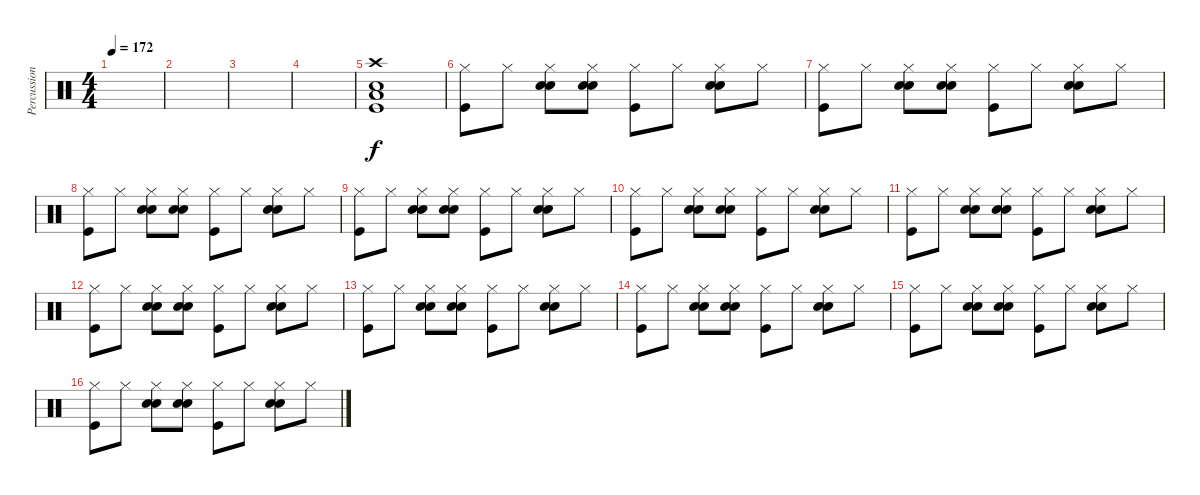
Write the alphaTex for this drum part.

\track ("Percussions" "Percussion") {instrument percussion}
\staff {score}
\articulation defaults
\ts (4 4)
\tempo 172
\clef neutral
\ks c
|
|
|
|
("Crash high (hit)" "Snare (hit) 2" "Low Tom (hit)" "Kick (hit)").1 |
("Hi-Hat (closed)" "Kick (hit)").8 "Hi-Hat (closed)".8 ("Electric Snare (hit)" "Hi-Hat (closed)" "Snare (hit) 2").8 ("Electric Snare (hit)" "Hi-Hat (closed)" "Snare (hit) 2").8 ("Hi-Hat (closed)" "Kick (hit)").8 "Hi-Hat (closed)".8 ("Electric Snare (hit)" "Hi-Hat (closed)" "Snare (hit) 2").8 "Hi-Hat (closed)".8 |
("Hi-Hat (closed)" "Kick (hit)").8 "Hi-Hat (closed)".8 ("Electric Snare (hit)" "Hi-Hat (closed)" "Snare (hit) 2").8 ("Electric Snare (hit)" "Hi-Hat (closed)" "Snare (hit) 2").8 ("Hi-Hat (closed)" "Kick (hit)").8 "Hi-Hat (closed)".8 ("Electric Snare (hit)" "Hi-Hat (closed)" "Snare (hit) 2").8 "Hi-Hat (closed)".8 |
("Hi-Hat (closed)" "Kick (hit)").8 "Hi-Hat (closed)".8 ("Electric Snare (hit)" "Hi-Hat (closed)" "Snare (hit) 2").8 ("Electric Snare (hit)" "Hi-Hat (closed)" "Snare (hit) 2").8 ("Hi-Hat (closed)" "Kick (hit)").8 "Hi-Hat (closed)".8 ("Electric Snare (hit)" "Hi-Hat (closed)" "Snare (hit) 2").8 "Hi-Hat (closed)".8 |
("Hi-Hat (closed)" "Kick (hit)").8 "Hi-Hat (closed)".8 ("Electric Snare (hit)" "Hi-Hat (closed)" "Snare (hit) 2").8 ("Electric Snare (hit)" "Hi-Hat (closed)" "Snare (hit) 2").8 ("Hi-Hat (closed)" "Kick (hit)").8 "Hi-Hat (closed)".8 ("Electric Snare (hit)" "Hi-Hat (closed)" "Snare (hit) 2").8 "Hi-Hat (closed)".8 |
("Hi-Hat (closed)" "Kick (hit)").8 "Hi-Hat (closed)".8 ("Electric Snare (hit)" "Hi-Hat (closed)" "Snare (hit) 2").8 ("Electric Snare (hit)" "Hi-Hat (closed)" "Snare (hit) 2").8 ("Hi-Hat (closed)" "Kick (hit)").8 "Hi-Hat (closed)".8 ("Electric Snare (hit)" "Hi-Hat (closed)" "Snare (hit) 2").8 "Hi-Hat (closed)".8 |
("Hi-Hat (closed)" "Kick (hit)").8 "Hi-Hat (closed)".8 ("Electric Snare (hit)" "Hi-Hat (closed)" "Snare (hit) 2").8 ("Electric Snare (hit)" "Hi-Hat (closed)" "Snare (hit) 2").8 ("Hi-Hat (closed)" "Kick (hit)").8 "Hi-Hat (closed)".8 ("Electric Snare (hit)" "Hi-Hat (closed)" "Snare (hit) 2").8 "Hi-Hat (closed)".8 |
("Hi-Hat (closed)" "Kick (hit)").8 "Hi-Hat (closed)".8 ("Electric Snare (hit)" "Hi-Hat (closed)" "Snare (hit) 2").8 ("Electric Snare (hit)" "Hi-Hat (closed)" "Snare (hit) 2").8 ("Hi-Hat (closed)" "Kick (hit)").8 "Hi-Hat (closed)".8 ("Electric Snare (hit)" "Hi-Hat (closed)" "Snare (hit) 2").8 "Hi-Hat (closed)".8 |
("Hi-Hat (closed)" "Kick (hit)").8 "Hi-Hat (closed)".8 ("Electric Snare (hit)" "Hi-Hat (closed)" "Snare (hit) 2").8 ("Electric Snare (hit)" "Hi-Hat (closed)" "Snare (hit) 2").8 ("Hi-Hat (closed)" "Kick (hit)").8 "Hi-Hat (closed)".8 ("Electric Snare (hit)" "Hi-Hat (closed)" "Snare (hit) 2").8 "Hi-Hat (closed)".8 |
("Hi-Hat (closed)" "Kick (hit)").8 "Hi-Hat (closed)".8 ("Electric Snare (hit)" "Hi-Hat (closed)" "Snare (hit) 2").8 ("Electric Snare (hit)" "Hi-Hat (closed)" "Snare (hit) 2").8 ("Hi-Hat (closed)" "Kick (hit)").8 "Hi-Hat (closed)".8 ("Electric Snare (hit)" "Hi-Hat (closed)" "Snare (hit) 2").8 "Hi-Hat (closed)".8 |
("Hi-Hat (closed)" "Kick (hit)").8 "Hi-Hat (closed)".8 ("Electric Snare (hit)" "Hi-Hat (closed)" "Snare (hit) 2").8 ("Electric Snare (hit)" "Hi-Hat (closed)" "Snare (hit) 2").8 ("Hi-Hat (closed)" "Kick (hit)").8 "Hi-Hat (closed)".8 ("Electric Snare (hit)" "Hi-Hat (closed)" "Snare (hit) 2").8 "Hi-Hat (closed)".8 |
("Hi-Hat (closed)" "Kick (hit)").8 "Hi-Hat (closed)".8 ("Electric Snare (hit)" "Hi-Hat (closed)" "Snare (hit) 2").8 ("Electric Snare (hit)" "Hi-Hat (closed)" "Snare (hit) 2").8 ("Hi-Hat (closed)" "Kick (hit)").8 "Hi-Hat (closed)".8 ("Electric Snare (hit)" "Hi-Hat (closed)" "Snare (hit) 2").8 "Hi-Hat (closed)".8
